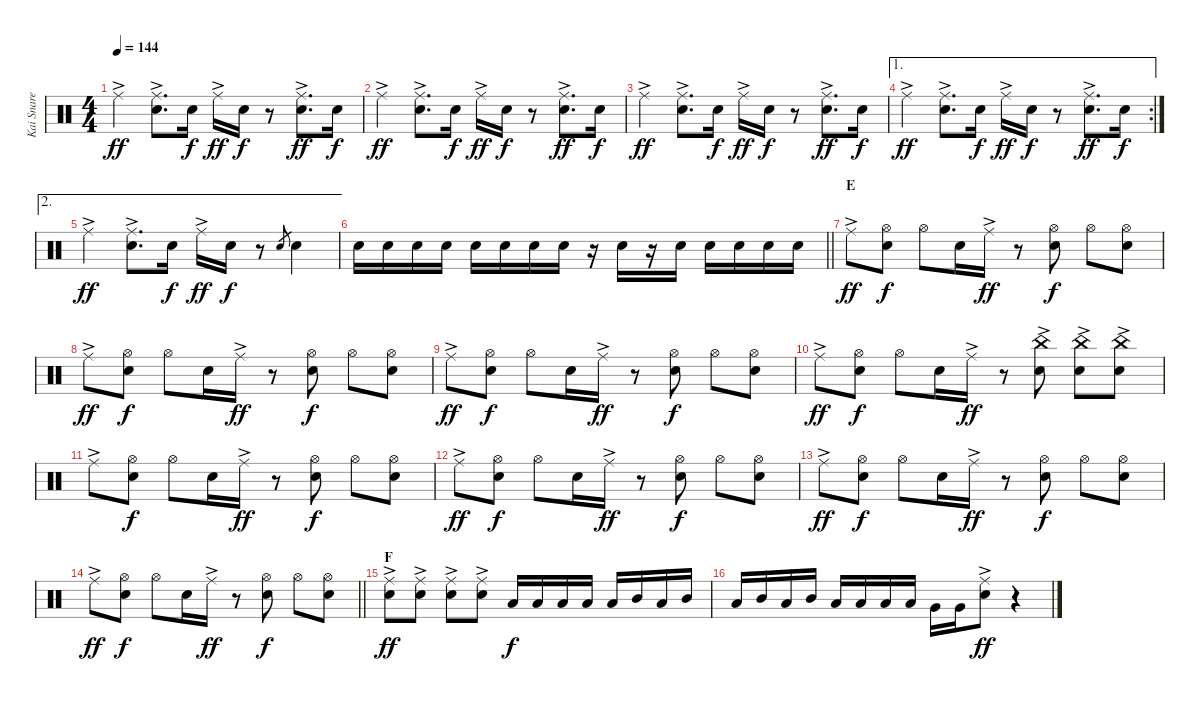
\track ("Kai Snare" "Kai Snare") {instrument percussion}
\staff {score}
\articulation defaults
\ts (4 4)
\tempo 144
\clef neutral
\ks c "Ride (middle)"{ac}.4{dy ff}
("Ride (middle)"{ac} "Snare (hit) 2").8{d} "Snare (hit) 2".16{dy f} "Ride (middle)"{ac}.16{dy ff} "Snare (hit) 2".16{dy f} r.8 ("Ride (middle)"{ac} "Snare (hit) 2").8{d dy ff} "Snare (hit) 2".16{dy f} |
"Ride (middle)"{ac}.4{dy ff} ("Ride (middle)"{ac} "Snare (hit) 2").8{d} "Snare (hit) 2".16{dy f} "Ride (middle)"{ac}.16{dy ff} "Snare (hit) 2".16{dy f} r.8 ("Ride (middle)"{ac} "Snare (hit) 2").8{d dy ff} "Snare (hit) 2".16{dy f} |
"Ride (middle)"{ac}.4{dy ff} ("Ride (middle)"{ac} "Snare (hit) 2").8{d} "Snare (hit) 2".16{dy f} "Ride (middle)"{ac}.16{dy ff} "Snare (hit) 2".16{dy f} r.8 ("Ride (middle)"{ac} "Snare (hit) 2").8{d dy ff} "Snare (hit) 2".16{dy f} |
\ae 1
\rc 2 "Ride (middle)"{ac}.4{dy ff}
("Ride (middle)"{ac} "Snare (hit) 2").8{d} "Snare (hit) 2".16{dy f} "Ride (middle)"{ac}.16{dy ff} "Snare (hit) 2".16{dy f} r.8 ("Ride (middle)"{ac} "Snare (hit) 2").8{d dy ff} "Snare (hit) 2".16{dy f} |
\ae 2 "Ride (middle)"{ac}.4{dy ff}
("Ride (middle)"{ac} "Snare (hit) 2").8{d} "Snare (hit) 2".16{dy f} "Ride (middle)"{ac}.16{dy ff} "Snare (hit) 2".16{dy f} r.8 "Snare (hit) 2".8{gr} "Snare (hit) 2".4 |
\barLineRight lightlight "Snare (hit) 2".16 "Snare (hit) 2".16 "Snare (hit) 2".16 "Snare (hit) 2".16 "Snare (hit) 2".16 "Snare (hit) 2".16 "Snare (hit) 2".16 "Snare (hit) 2".16
r.16 "Snare (hit) 2".16 r.16 "Snare (hit) 2".16 "Snare (hit) 2".16 "Snare (hit) 2".16 "Snare (hit) 2".16 "Snare (hit) 2".16 |
\section ("" "E")
"Ride (middle)"{ac}.8{dy ff} ("Hi-Hat (open)" "Snare (hit) 2").8{dy f} "Hi-Hat (open)".8 "Snare (hit) 2".16 "Ride (middle)"{ac}.16{dy ff} r.8 ("Hi-Hat (open)" "Snare (hit) 2").8{dy f} "Hi-Hat (open)".8 ("Hi-Hat (open)" "Snare (hit) 2").8 |
"Ride (middle)"{ac}.8{dy ff} ("Hi-Hat (open)" "Snare (hit) 2").8{dy f} "Hi-Hat (open)".8 "Snare (hit) 2".16 "Ride (middle)"{ac}.16{dy ff} r.8 ("Hi-Hat (open)" "Snare (hit) 2").8{dy f} "Hi-Hat (open)".8 ("Hi-Hat (open)" "Snare (hit) 2").8 |
"Ride (middle)"{ac}.8{dy ff} ("Hi-Hat (open)" "Snare (hit) 2").8{dy f} "Hi-Hat (open)".8 "Snare (hit) 2".16 "Ride (middle)"{ac}.16{dy ff} r.8 ("Hi-Hat (open)" "Snare (hit) 2").8{dy f} "Hi-Hat (open)".8 ("Hi-Hat (open)" "Snare (hit) 2").8 |
"Ride (middle)"{ac}.8{dy ff} ("Hi-Hat (open)" "Snare (hit) 2").8{dy f} "Hi-Hat (open)".8 "Snare (hit) 2".16 "Ride (middle)"{ac}.16{dy ff} r.8 ("China (hit)"{ac} "Snare (hit) 2").8 ("China (hit)"{ac} "Snare (hit) 2").8 ("China (hit)"{ac} "Snare (hit) 2").8 |
"Ride (middle)"{ac}.8 ("Hi-Hat (open)" "Snare (hit) 2").8{dy f} "Hi-Hat (open)".8 "Snare (hit) 2".16 "Ride (middle)"{ac}.16{dy ff} r.8 ("Hi-Hat (open)" "Snare (hit) 2").8{dy f} "Hi-Hat (open)".8 ("Hi-Hat (open)" "Snare (hit) 2").8 |
"Ride (middle)"{ac}.8{dy ff} ("Hi-Hat (open)" "Snare (hit) 2").8{dy f} "Hi-Hat (open)".8 "Snare (hit) 2".16 "Ride (middle)"{ac}.16{dy ff} r.8 ("Hi-Hat (open)" "Snare (hit) 2").8{dy f} "Hi-Hat (open)".8 ("Hi-Hat (open)" "Snare (hit) 2").8 |
"Ride (middle)"{ac}.8{dy ff} ("Hi-Hat (open)" "Snare (hit) 2").8{dy f} "Hi-Hat (open)".8 "Snare (hit) 2".16 "Ride (middle)"{ac}.16{dy ff} r.8 ("Hi-Hat (open)" "Snare (hit) 2").8{dy f} "Hi-Hat (open)".8 ("Hi-Hat (open)" "Snare (hit) 2").8 |
\barLineRight lightlight "Ride (middle)"{ac}.8{dy ff}
("Hi-Hat (open)" "Snare (hit) 2").8{dy f} "Hi-Hat (open)".8 "Snare (hit) 2".16 "Ride (middle)"{ac}.16{dy ff} r.8 ("Hi-Hat (open)" "Snare (hit) 2").8{dy f} "Hi-Hat (open)".8 ("Hi-Hat (open)" "Snare (hit) 2").8 |
\section ("" "F")
("Ride (middle)"{ac} "Snare (hit) 2").8{dy ff} ("Ride (middle)"{ac} "Snare (hit) 2").8 ("Ride (middle)"{ac} "Snare (hit) 2").8 ("Ride (middle)"{ac} "Snare (hit) 2").8 "Low Tom (hit)".16{dy f} "Low Tom (hit)".16 "Low Tom (hit)".16 "Low Tom (hit)".16 "Low Tom (hit)".16 "Mid Tom (hit)".16 "Low Tom (hit)".16 "Mid Tom (hit)".16 |
"Low Tom (hit)".16 "Mid Tom (hit)".16 "Low Tom (hit)".16 "Mid Tom (hit)".16 "Low Tom (hit)".16 "Low Tom (hit)".16 "Low Tom (hit)".16 "Low Tom (hit)".16 "Very Low Tom (hit)".16 "Very Low Tom (hit)".16 ("Ride (middle)"{ac} "Snare (hit) 2").8{dy ff} r.4
